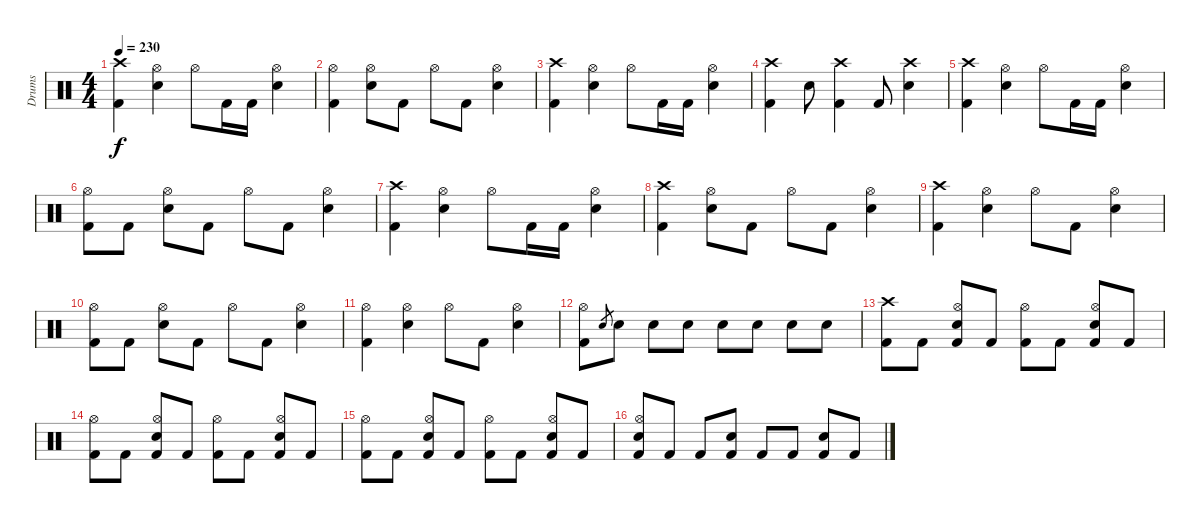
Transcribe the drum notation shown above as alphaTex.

\track ("Drums" "Drums") {instrument percussion}
\staff {score}
\articulation defaults
\ts (4 4)
\tempo 230
\clef neutral
\ks c
("Crash high (hit)" "Kick (hit) 2").4{dy f} ("Hi-Hat (open)" "Electric Snare (hit)").4 "Hi-Hat (open)".8 "Kick (hit) 2".16 "Kick (hit) 2".16 ("Hi-Hat (open)" "Electric Snare (hit)").4 |
("Hi-Hat (open)" "Kick (hit) 2").4 ("Hi-Hat (open)" "Electric Snare (hit)").8 "Kick (hit) 2".8 "Hi-Hat (open)".8 "Kick (hit) 2".8 ("Hi-Hat (open)" "Electric Snare (hit)").4 |
("Crash high (hit)" "Kick (hit) 2").4 ("Hi-Hat (open)" "Electric Snare (hit)").4 "Hi-Hat (open)".8 "Kick (hit) 2".16 "Kick (hit) 2".16 ("Hi-Hat (open)" "Electric Snare (hit)").4 |
("Crash high (hit)" "Kick (hit) 2").4 "Electric Snare (hit)".8 ("Crash high (hit)" "Kick (hit) 2").4 "Kick (hit) 2".8 ("Crash high (hit)" "Electric Snare (hit)").4 |
("Crash high (hit)" "Kick (hit) 2").4 ("Hi-Hat (open)" "Electric Snare (hit)").4 "Hi-Hat (open)".8 "Kick (hit) 2".16 "Kick (hit) 2".16 ("Hi-Hat (open)" "Electric Snare (hit)").4 |
("Hi-Hat (open)" "Kick (hit) 2").8 "Kick (hit) 2".8 ("Hi-Hat (open)" "Electric Snare (hit)").8 "Kick (hit) 2".8 "Hi-Hat (open)".8 "Kick (hit) 2".8 ("Hi-Hat (open)" "Electric Snare (hit)").4 |
("Crash high (hit)" "Kick (hit) 2").4 ("Hi-Hat (open)" "Electric Snare (hit)").4 "Hi-Hat (open)".8 "Kick (hit) 2".16 "Kick (hit) 2".16 ("Hi-Hat (open)" "Electric Snare (hit)").4 |
("Crash high (hit)" "Kick (hit) 2").4 ("Hi-Hat (open)" "Electric Snare (hit)").8 "Kick (hit) 2".8 "Hi-Hat (open)".8 "Kick (hit) 2".8 ("Hi-Hat (open)" "Electric Snare (hit)").4 |
("Crash high (hit)" "Kick (hit) 2").4 ("Hi-Hat (open)" "Electric Snare (hit)").4 "Hi-Hat (open)".8 "Kick (hit) 2".8 ("Hi-Hat (open)" "Electric Snare (hit)").4 |
("Hi-Hat (open)" "Kick (hit) 2").8 "Kick (hit) 2".8 ("Hi-Hat (open)" "Electric Snare (hit)").8 "Kick (hit) 2".8 "Hi-Hat (open)".8 "Kick (hit) 2".8 ("Hi-Hat (open)" "Electric Snare (hit)").4 |
("Hi-Hat (open)" "Kick (hit) 2").4 ("Hi-Hat (open)" "Electric Snare (hit)").4 "Hi-Hat (open)".8 "Kick (hit) 2".8 ("Hi-Hat (open)" "Electric Snare (hit)").4 |
("Hi-Hat (open)" "Kick (hit) 2").8 "Electric Snare (hit)".8{gr} "Electric Snare (hit)".8 "Electric Snare (hit)".8 "Electric Snare (hit)".8 "Electric Snare (hit)".8 "Electric Snare (hit)".8 "Electric Snare (hit)".8 "Electric Snare (hit)".8 |
("Crash high (hit)" "Kick (hit) 2").8 "Kick (hit) 2".8 ("Hi-Hat (open)" "Electric Snare (hit)" "Kick (hit) 2").8 "Kick (hit) 2".8 ("Hi-Hat (open)" "Kick (hit) 2").8 "Kick (hit) 2".8 ("Hi-Hat (open)" "Electric Snare (hit)" "Kick (hit) 2").8 "Kick (hit) 2".8 |
("Hi-Hat (open)" "Kick (hit) 2").8 "Kick (hit) 2".8 ("Hi-Hat (open)" "Electric Snare (hit)" "Kick (hit) 2").8 "Kick (hit) 2".8 ("Hi-Hat (open)" "Kick (hit) 2").8 "Kick (hit) 2".8 ("Hi-Hat (open)" "Electric Snare (hit)" "Kick (hit) 2").8 "Kick (hit) 2".8 |
("Hi-Hat (open)" "Kick (hit) 2").8 "Kick (hit) 2".8 ("Hi-Hat (open)" "Electric Snare (hit)" "Kick (hit) 2").8 "Kick (hit) 2".8 ("Hi-Hat (open)" "Kick (hit) 2").8 "Kick (hit) 2".8 ("Hi-Hat (open)" "Electric Snare (hit)" "Kick (hit) 2").8 "Kick (hit) 2".8 |
("Hi-Hat (open)" "Electric Snare (hit)" "Kick (hit) 2").8 "Kick (hit) 2".8 "Kick (hit) 2".8 ("Electric Snare (hit)" "Kick (hit) 2").8 "Kick (hit) 2".8 "Kick (hit) 2".8 ("Electric Snare (hit)" "Kick (hit) 2").8 "Kick (hit) 2".8
